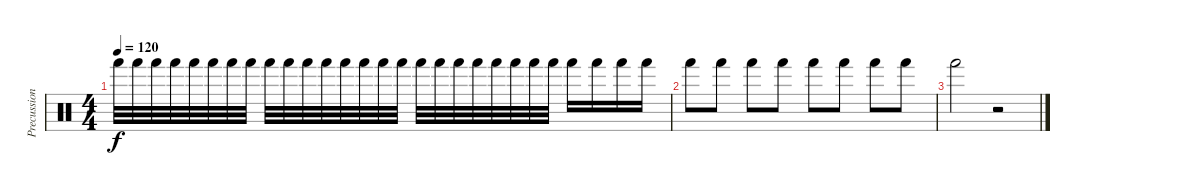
\track ("Precussion" "Precussion") {instrument percussion}
\staff {score}
\articulation defaults
\ts (4 4)
\tempo 120
\clef neutral
\ks c "Hand (hit)".32{dy f} "Hand (hit)".32 "Hand (hit)".32 "Hand (hit)".32 "Hand (hit)".32 "Hand (hit)".32 "Hand (hit)".32 "Hand (hit)".32 "Hand (hit)".32 "Hand (hit)".32 "Hand (hit)".32 "Hand (hit)".32 "Hand (hit)".32 "Hand (hit)".32 "Hand (hit)".32 "Hand (hit)".32 "Hand (hit)".32 "Hand (hit)".32 "Hand (hit)".32 "Hand (hit)".32 "Hand (hit)".32 "Hand (hit)".32 "Hand (hit)".32 "Hand (hit)".32 "Hand (hit)".16 "Hand (hit)".16 "Hand (hit)".16 "Hand (hit)".16
|
"Hand (hit)".8 "Hand (hit)".8 "Hand (hit)".8 "Hand (hit)".8 "Hand (hit)".8 "Hand (hit)".8 "Hand (hit)".8 "Hand (hit)".8 |
"Hand (hit)".2 r.2
